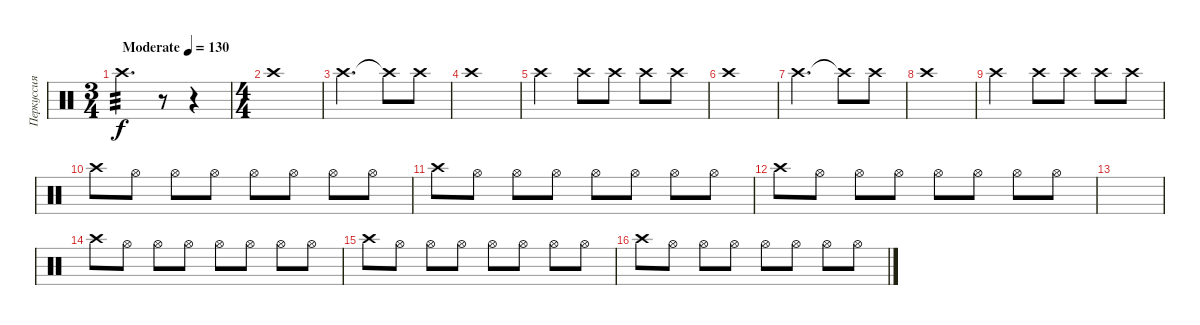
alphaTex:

\track ("Перкуссия" "Перкуссия") {instrument percussion}
\staff {score}
\articulation defaults
\ts (3 4)
\tempo (130 "Moderate")
\clef neutral
\ks c "Crash high (hit)".4{d tp 3 dy f}
r.8 r.4 |
\ts (4 4)
"Crash high (hit)".1 |
"Crash high (hit)".2{d} "Crash high (hit)"{t}.8 "Crash high (hit)".8 |
"Crash high (hit)".1 |
"Crash high (hit)".2 "Crash high (hit)".8 "Crash high (hit)".8 "Crash high (hit)".8 "Crash high (hit)".8 |
"Crash high (hit)".1 |
"Crash high (hit)".2{d} "Crash high (hit)"{t}.8 "Crash high (hit)".8 |
"Crash high (hit)".1 |
"Crash high (hit)".2 "Crash high (hit)".8 "Crash high (hit)".8 "Crash high (hit)".8 "Crash high (hit)".8 |
"Crash high (hit)".8 "Hi-Hat (open)".8 "Hi-Hat (open)".8 "Hi-Hat (open)".8 "Hi-Hat (open)".8 "Hi-Hat (open)".8 "Hi-Hat (open)".8 "Hi-Hat (open)".8 |
"Crash high (hit)".8 "Hi-Hat (open)".8 "Hi-Hat (open)".8 "Hi-Hat (open)".8 "Hi-Hat (open)".8 "Hi-Hat (open)".8 "Hi-Hat (open)".8 "Hi-Hat (open)".8 |
"Crash high (hit)".8 "Hi-Hat (open)".8 "Hi-Hat (open)".8 "Hi-Hat (open)".8 "Hi-Hat (open)".8 "Hi-Hat (open)".8 "Hi-Hat (open)".8 "Hi-Hat (open)".8 |
|
"Crash high (hit)".8 "Hi-Hat (open)".8 "Hi-Hat (open)".8 "Hi-Hat (open)".8 "Hi-Hat (open)".8 "Hi-Hat (open)".8 "Hi-Hat (open)".8 "Hi-Hat (open)".8 |
"Crash high (hit)".8 "Hi-Hat (open)".8 "Hi-Hat (open)".8 "Hi-Hat (open)".8 "Hi-Hat (open)".8 "Hi-Hat (open)".8 "Hi-Hat (open)".8 "Hi-Hat (open)".8 |
"Crash high (hit)".8 "Hi-Hat (open)".8 "Hi-Hat (open)".8 "Hi-Hat (open)".8 "Hi-Hat (open)".8 "Hi-Hat (open)".8 "Hi-Hat (open)".8 "Hi-Hat (open)".8
